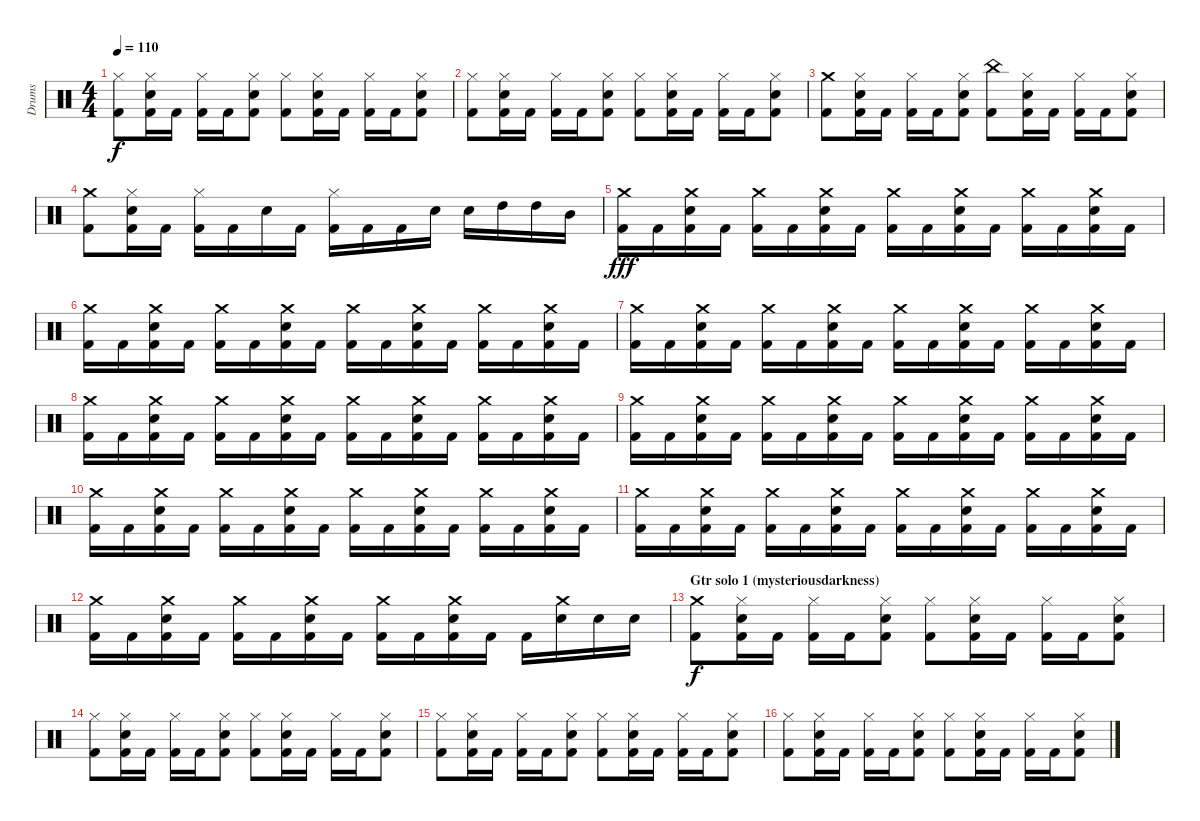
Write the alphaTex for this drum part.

\track ("Drums" "Drums") {instrument percussion}
\staff {score}
\articulation defaults
\ts (4 4)
\tempo 110
\clef neutral
\ks c
("Hi-Hat (closed)" "Kick (hit) 2").8{dy f} ("Hi-Hat (closed)" "Electric Snare (hit)" "Kick (hit) 2").16 "Kick (hit) 2".16 ("Hi-Hat (closed)" "Kick (hit) 2").16 "Kick (hit) 2".16 ("Hi-Hat (closed)" "Electric Snare (hit)" "Kick (hit) 2").8 ("Hi-Hat (closed)" "Kick (hit) 2").8 ("Hi-Hat (closed)" "Electric Snare (hit)" "Kick (hit) 2").16 "Kick (hit) 2".16 ("Hi-Hat (closed)" "Kick (hit) 2").16 "Kick (hit) 2".16 ("Hi-Hat (closed)" "Electric Snare (hit)" "Kick (hit) 2").8 |
("Hi-Hat (closed)" "Kick (hit) 2").8 ("Hi-Hat (closed)" "Electric Snare (hit)" "Kick (hit) 2").16 "Kick (hit) 2".16 ("Hi-Hat (closed)" "Kick (hit) 2").16 "Kick (hit) 2".16 ("Hi-Hat (closed)" "Electric Snare (hit)" "Kick (hit) 2").8 ("Hi-Hat (closed)" "Kick (hit) 2").8 ("Hi-Hat (closed)" "Electric Snare (hit)" "Kick (hit) 2").16 "Kick (hit) 2".16 ("Hi-Hat (closed)" "Kick (hit) 2").16 "Kick (hit) 2".16 ("Hi-Hat (closed)" "Electric Snare (hit)" "Kick (hit) 2").8 |
("Crash medium (hit)" "Kick (hit) 2").8 ("Hi-Hat (closed)" "Electric Snare (hit)" "Kick (hit) 2").16 "Kick (hit) 2".16 ("Hi-Hat (closed)" "Kick (hit) 2").16 "Kick (hit) 2".16 ("Hi-Hat (closed)" "Electric Snare (hit)" "Kick (hit) 2").8 ("China (hit)" "Kick (hit) 2").8 ("Hi-Hat (closed)" "Electric Snare (hit)" "Kick (hit) 2").16 "Kick (hit) 2".16 ("Hi-Hat (closed)" "Kick (hit) 2").16 "Kick (hit) 2".16 ("Hi-Hat (closed)" "Electric Snare (hit)" "Kick (hit) 2").8 |
("Crash medium (hit)" "Kick (hit) 2").8 ("Hi-Hat (closed)" "Electric Snare (hit)" "Kick (hit) 2").16 "Kick (hit) 2".16 ("Hi-Hat (closed)" "Kick (hit) 2").16 "Kick (hit) 2".16 "Electric Snare (hit)".16 "Kick (hit) 2".16 ("Hi-Hat (closed)" "Kick (hit) 2").16 "Kick (hit) 2".16 "Kick (hit) 2".16 "Electric Snare (hit)".16 "Electric Snare (hit)".16 "High Tom (hit)".16 "High Tom (hit)".16 "Mid Tom (hit)".16 |
("Crash medium (hit)" "Kick (hit) 2").16{dy fff} "Kick (hit) 2".16 ("Crash medium (hit)" "Electric Snare (hit)" "Kick (hit) 2").16 "Kick (hit) 2".16 ("Crash medium (hit)" "Kick (hit) 2").16 "Kick (hit) 2".16 ("Crash medium (hit)" "Electric Snare (hit)" "Kick (hit) 2").16 "Kick (hit) 2".16 ("Crash medium (hit)" "Kick (hit) 2").16 "Kick (hit) 2".16 ("Crash medium (hit)" "Electric Snare (hit)" "Kick (hit) 2").16 "Kick (hit) 2".16 ("Crash medium (hit)" "Kick (hit) 2").16 "Kick (hit) 2".16 ("Crash medium (hit)" "Electric Snare (hit)" "Kick (hit) 2").16 "Kick (hit) 2".16 |
("Crash medium (hit)" "Kick (hit) 2").16 "Kick (hit) 2".16 ("Crash medium (hit)" "Electric Snare (hit)" "Kick (hit) 2").16 "Kick (hit) 2".16 ("Crash medium (hit)" "Kick (hit) 2").16 "Kick (hit) 2".16 ("Crash medium (hit)" "Electric Snare (hit)" "Kick (hit) 2").16 "Kick (hit) 2".16 ("Crash medium (hit)" "Kick (hit) 2").16 "Kick (hit) 2".16 ("Crash medium (hit)" "Electric Snare (hit)" "Kick (hit) 2").16 "Kick (hit) 2".16 ("Crash medium (hit)" "Kick (hit) 2").16 "Kick (hit) 2".16 ("Crash medium (hit)" "Electric Snare (hit)" "Kick (hit) 2").16 "Kick (hit) 2".16 |
("Crash medium (hit)" "Kick (hit) 2").16 "Kick (hit) 2".16 ("Crash medium (hit)" "Electric Snare (hit)" "Kick (hit) 2").16 "Kick (hit) 2".16 ("Crash medium (hit)" "Kick (hit) 2").16 "Kick (hit) 2".16 ("Crash medium (hit)" "Electric Snare (hit)" "Kick (hit) 2").16 "Kick (hit) 2".16 ("Crash medium (hit)" "Kick (hit) 2").16 "Kick (hit) 2".16 ("Crash medium (hit)" "Electric Snare (hit)" "Kick (hit) 2").16 "Kick (hit) 2".16 ("Crash medium (hit)" "Kick (hit) 2").16 "Kick (hit) 2".16 ("Crash medium (hit)" "Electric Snare (hit)" "Kick (hit) 2").16 "Kick (hit) 2".16 |
("Crash medium (hit)" "Kick (hit) 2").16 "Kick (hit) 2".16 ("Crash medium (hit)" "Electric Snare (hit)" "Kick (hit) 2").16 "Kick (hit) 2".16 ("Crash medium (hit)" "Kick (hit) 2").16 "Kick (hit) 2".16 ("Crash medium (hit)" "Electric Snare (hit)" "Kick (hit) 2").16 "Kick (hit) 2".16 ("Crash medium (hit)" "Kick (hit) 2").16 "Kick (hit) 2".16 ("Crash medium (hit)" "Electric Snare (hit)" "Kick (hit) 2").16 "Kick (hit) 2".16 ("Crash medium (hit)" "Kick (hit) 2").16 "Kick (hit) 2".16 ("Crash medium (hit)" "Electric Snare (hit)" "Kick (hit) 2").16 "Kick (hit) 2".16 |
("Crash medium (hit)" "Kick (hit) 2").16 "Kick (hit) 2".16 ("Crash medium (hit)" "Electric Snare (hit)" "Kick (hit) 2").16 "Kick (hit) 2".16 ("Crash medium (hit)" "Kick (hit) 2").16 "Kick (hit) 2".16 ("Crash medium (hit)" "Electric Snare (hit)" "Kick (hit) 2").16 "Kick (hit) 2".16 ("Crash medium (hit)" "Kick (hit) 2").16 "Kick (hit) 2".16 ("Crash medium (hit)" "Electric Snare (hit)" "Kick (hit) 2").16 "Kick (hit) 2".16 ("Crash medium (hit)" "Kick (hit) 2").16 "Kick (hit) 2".16 ("Crash medium (hit)" "Electric Snare (hit)" "Kick (hit) 2").16 "Kick (hit) 2".16 |
("Crash medium (hit)" "Kick (hit) 2").16 "Kick (hit) 2".16 ("Crash medium (hit)" "Electric Snare (hit)" "Kick (hit) 2").16 "Kick (hit) 2".16 ("Crash medium (hit)" "Kick (hit) 2").16 "Kick (hit) 2".16 ("Crash medium (hit)" "Electric Snare (hit)" "Kick (hit) 2").16 "Kick (hit) 2".16 ("Crash medium (hit)" "Kick (hit) 2").16 "Kick (hit) 2".16 ("Crash medium (hit)" "Electric Snare (hit)" "Kick (hit) 2").16 "Kick (hit) 2".16 ("Crash medium (hit)" "Kick (hit) 2").16 "Kick (hit) 2".16 ("Crash medium (hit)" "Electric Snare (hit)" "Kick (hit) 2").16 "Kick (hit) 2".16 |
("Crash medium (hit)" "Kick (hit) 2").16 "Kick (hit) 2".16 ("Crash medium (hit)" "Electric Snare (hit)" "Kick (hit) 2").16 "Kick (hit) 2".16 ("Crash medium (hit)" "Kick (hit) 2").16 "Kick (hit) 2".16 ("Crash medium (hit)" "Electric Snare (hit)" "Kick (hit) 2").16 "Kick (hit) 2".16 ("Crash medium (hit)" "Kick (hit) 2").16 "Kick (hit) 2".16 ("Crash medium (hit)" "Electric Snare (hit)" "Kick (hit) 2").16 "Kick (hit) 2".16 ("Crash medium (hit)" "Kick (hit) 2").16 "Kick (hit) 2".16 ("Crash medium (hit)" "Electric Snare (hit)" "Kick (hit) 2").16 "Kick (hit) 2".16 |
("Crash medium (hit)" "Kick (hit) 2").16 "Kick (hit) 2".16 ("Crash medium (hit)" "Electric Snare (hit)" "Kick (hit) 2").16 "Kick (hit) 2".16 ("Crash medium (hit)" "Kick (hit) 2").16 "Kick (hit) 2".16 ("Crash medium (hit)" "Electric Snare (hit)" "Kick (hit) 2").16 "Kick (hit) 2".16 ("Crash medium (hit)" "Kick (hit) 2").16 "Kick (hit) 2".16 ("Crash medium (hit)" "Electric Snare (hit)" "Kick (hit) 2").16 "Kick (hit) 2".16 "Kick (hit) 2".16 ("Crash medium (hit)" "Electric Snare (hit)").16 "Electric Snare (hit)".16 "Electric Snare (hit)".16 |
\section ("" "Gtr solo 1 (mysteriousdarkness)")
("Crash medium (hit)" "Kick (hit) 2").8{dy f} ("Hi-Hat (closed)" "Electric Snare (hit)" "Kick (hit) 2").16 "Kick (hit) 2".16 ("Hi-Hat (closed)" "Kick (hit) 2").16 "Kick (hit) 2".16 ("Hi-Hat (closed)" "Electric Snare (hit)" "Kick (hit) 2").8 ("Hi-Hat (closed)" "Kick (hit) 2").8 ("Hi-Hat (closed)" "Electric Snare (hit)" "Kick (hit) 2").16 "Kick (hit) 2".16 ("Hi-Hat (closed)" "Kick (hit) 2").16 "Kick (hit) 2".16 ("Hi-Hat (closed)" "Electric Snare (hit)" "Kick (hit) 2").8 |
("Hi-Hat (closed)" "Kick (hit) 2").8 ("Hi-Hat (closed)" "Electric Snare (hit)" "Kick (hit) 2").16 "Kick (hit) 2".16 ("Hi-Hat (closed)" "Kick (hit) 2").16 "Kick (hit) 2".16 ("Hi-Hat (closed)" "Electric Snare (hit)" "Kick (hit) 2").8 ("Hi-Hat (closed)" "Kick (hit) 2").8 ("Hi-Hat (closed)" "Electric Snare (hit)" "Kick (hit) 2").16 "Kick (hit) 2".16 ("Hi-Hat (closed)" "Kick (hit) 2").16 "Kick (hit) 2".16 ("Hi-Hat (closed)" "Electric Snare (hit)" "Kick (hit) 2").8 |
("Hi-Hat (closed)" "Kick (hit) 2").8 ("Hi-Hat (closed)" "Electric Snare (hit)" "Kick (hit) 2").16 "Kick (hit) 2".16 ("Hi-Hat (closed)" "Kick (hit) 2").16 "Kick (hit) 2".16 ("Hi-Hat (closed)" "Electric Snare (hit)" "Kick (hit) 2").8 ("Hi-Hat (closed)" "Kick (hit) 2").8 ("Hi-Hat (closed)" "Electric Snare (hit)" "Kick (hit) 2").16 "Kick (hit) 2".16 ("Hi-Hat (closed)" "Kick (hit) 2").16 "Kick (hit) 2".16 ("Hi-Hat (closed)" "Electric Snare (hit)" "Kick (hit) 2").8 |
("Hi-Hat (closed)" "Kick (hit) 2").8 ("Hi-Hat (closed)" "Electric Snare (hit)" "Kick (hit) 2").16 "Kick (hit) 2".16 ("Hi-Hat (closed)" "Kick (hit) 2").16 "Kick (hit) 2".16 ("Hi-Hat (closed)" "Electric Snare (hit)" "Kick (hit) 2").8 ("Hi-Hat (closed)" "Kick (hit) 2").8 ("Hi-Hat (closed)" "Electric Snare (hit)" "Kick (hit) 2").16 "Kick (hit) 2".16 ("Hi-Hat (closed)" "Kick (hit) 2").16 "Kick (hit) 2".16 ("Hi-Hat (closed)" "Electric Snare (hit)" "Kick (hit) 2").8
